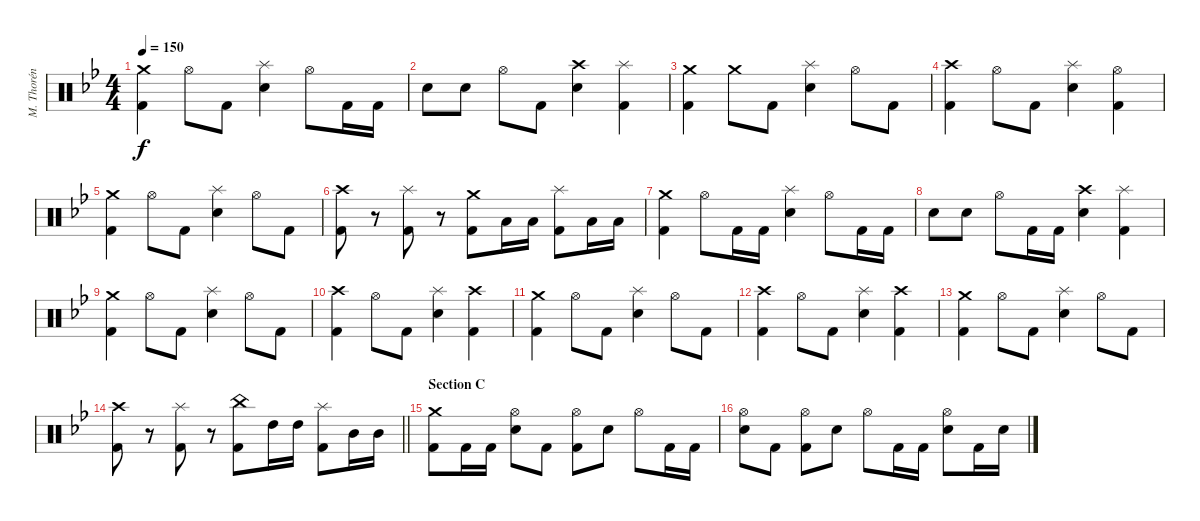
\track ("M. Thorén (Drums)" "M. Thorén ") {instrument percussion}
\staff {score}
\articulation defaults
\ts (4 4)
\tempo 150
\clef neutral
\ks gminor
("Crash medium (hit)" "Kick (hit) 2").4{dy f} "Hi-Hat (open)".8 "Kick (hit) 2".8 ("Splash (hit)" "Electric Snare (hit)").4 "Hi-Hat (open)".8 "Kick (hit) 2".16 "Kick (hit) 2".16 |
"Electric Snare (hit)".8 "Electric Snare (hit)".8 "Hi-Hat (open)".8 "Kick (hit) 2".8 ("Crash high (hit)" "Electric Snare (hit)").4 ("Splash (hit)" "Kick (hit) 2").4 |
("Crash medium (hit)" "Kick (hit) 2").4 "Crash medium (hit)".8 "Kick (hit) 2".8 ("Splash (hit)" "Electric Snare (hit)").4 "Hi-Hat (open)".8 "Kick (hit) 2".8 |
("Crash high (hit)" "Kick (hit) 2").4 "Hi-Hat (open)".8 "Kick (hit) 2".8 ("Splash (hit)" "Electric Snare (hit)").4 ("Hi-Hat (open)" "Kick (hit) 2").4 |
("Crash medium (hit)" "Kick (hit) 2").4 "Hi-Hat (open)".8 "Kick (hit) 2".8 ("Splash (hit)" "Electric Snare (hit)").4 "Hi-Hat (open)".8 "Kick (hit) 2".8 |
("Crash high (hit)" "Kick (hit) 2").8 r.8 ("Splash (hit)" "Kick (hit) 2").8 r.8 ("Crash medium (hit)" "Kick (hit) 2").8 "Low Tom (hit)".16 "Low Tom (hit)".16 ("Splash (hit)" "Kick (hit) 2").8 "Low Tom (hit)".16 "Low Tom (hit)".16 |
("Crash medium (hit)" "Kick (hit) 2").4 "Hi-Hat (open)".8 "Kick (hit) 2".16 "Kick (hit) 2".16 ("Splash (hit)" "Electric Snare (hit)").4 "Hi-Hat (open)".8 "Kick (hit) 2".16 "Kick (hit) 2".16 |
"Electric Snare (hit)".8 "Electric Snare (hit)".8 "Hi-Hat (open)".8 "Kick (hit) 2".16 "Kick (hit) 2".16 ("Crash high (hit)" "Electric Snare (hit)").4 ("Splash (hit)" "Kick (hit) 2").4 |
("Crash medium (hit)" "Kick (hit) 2").4 "Hi-Hat (open)".8 "Kick (hit) 2".8 ("Splash (hit)" "Electric Snare (hit)").4 "Hi-Hat (open)".8 "Kick (hit) 2".8 |
("Crash high (hit)" "Kick (hit) 2").4 "Hi-Hat (open)".8 "Kick (hit) 2".8 ("Splash (hit)" "Electric Snare (hit)").4 ("Crash high (hit)" "Kick (hit) 2").4 |
("Crash medium (hit)" "Kick (hit) 2").4 "Hi-Hat (open)".8 "Kick (hit) 2".8 ("Splash (hit)" "Electric Snare (hit)").4 "Hi-Hat (open)".8 "Kick (hit) 2".8 |
("Crash high (hit)" "Kick (hit) 2").4 "Hi-Hat (open)".8 "Kick (hit) 2".8 ("Splash (hit)" "Electric Snare (hit)").4 ("Crash high (hit)" "Kick (hit) 2").4 |
("Crash medium (hit)" "Kick (hit) 2").4 "Hi-Hat (open)".8 "Kick (hit) 2".8 ("Splash (hit)" "Electric Snare (hit)").4 "Hi-Hat (open)".8 "Kick (hit) 2".8 |
\barLineRight lightlight
("Crash high (hit)" "Kick (hit) 2").8 r.8 ("Splash (hit)" "Kick (hit) 2").8 r.8 ("China (hit)" "Kick (hit) 2").8 "High Tom (hit)".16 "High Tom (hit)".16 ("Splash (hit)" "Kick (hit) 2").8 "Mid Tom (hit)".16 "Mid Tom (hit)".16 |
\section ("" "Section C")
("Crash medium (hit)" "Kick (hit) 2").8 "Kick (hit) 2".16 "Kick (hit) 2".16 ("Hi-Hat (open)" "Electric Snare (hit)").8 "Kick (hit) 2".8 ("Hi-Hat (open)" "Kick (hit) 2").8 "Electric Snare (hit)".8 "Hi-Hat (open)".8 "Kick (hit) 2".16 "Kick (hit) 2".16 |
("Hi-Hat (open)" "Electric Snare (hit)").8 "Kick (hit) 2".8 ("Hi-Hat (open)" "Kick (hit) 2").8 "Electric Snare (hit)".8 "Hi-Hat (open)".8 "Kick (hit) 2".16 "Kick (hit) 2".16 ("Hi-Hat (open)" "Electric Snare (hit)").8 "Kick (hit) 2".16 "Electric Snare (hit)".16
